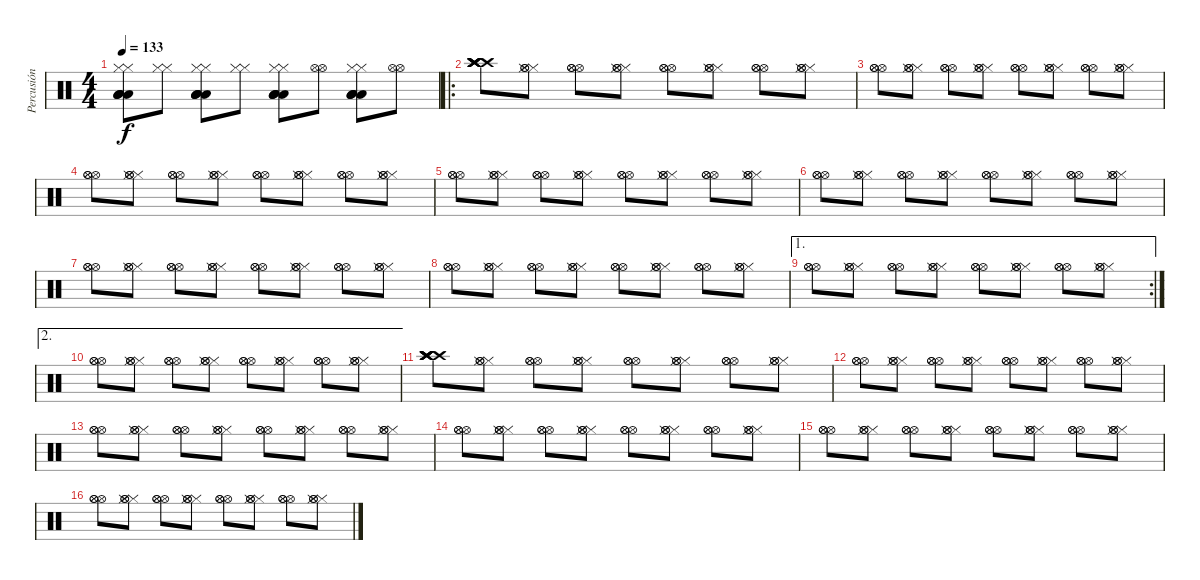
\track ("Percusión" "Percusión") {instrument percussion}
\staff {score}
\articulation defaults
\ts (4 4)
\tempo 133
\clef neutral
\ks c
("Hi-Hat (closed)" "Hi-Hat (closed)" "Low Tom (hit)" "Low Tom (hit)" "Low Tom (hit)" "Low Tom (hit)").8{dy f} ("Hi-Hat (closed)" "Hi-Hat (closed)").8 ("Hi-Hat (closed)" "Hi-Hat (closed)" "Low Tom (hit)" "Low Tom (hit)" "Low Tom (hit)" "Low Tom (hit)").8 ("Hi-Hat (closed)" "Hi-Hat (closed)").8 ("Hi-Hat (closed)" "Hi-Hat (closed)" "Low Tom (hit)" "Low Tom (hit)" "Low Tom (hit)" "Low Tom (hit)").8 ("Hi-Hat (open)" "Hi-Hat (open)").8 ("Hi-Hat (closed)" "Hi-Hat (closed)" "Low Tom (hit)" "Low Tom (hit)" "Low Tom (hit)" "Low Tom (hit)").8 ("Hi-Hat (open)" "Hi-Hat (open)").8 |
\ro
("Crash high (hit)" "Crash high (hit)" "Crash high (hit)" "Crash high (hit)" "Crash high (hit)" "Crash high (hit)").8 ("Hi-Hat (closed)" "Hi-Hat (open)" "Hi-Hat (closed)" "Hi-Hat (open)").8 ("Hi-Hat (open)" "Hi-Hat (open)" "Hi-Hat (open)").8 ("Hi-Hat (closed)" "Hi-Hat (open)" "Hi-Hat (closed)" "Hi-Hat (open)").8 ("Hi-Hat (open)" "Hi-Hat (open)" "Hi-Hat (open)").8 ("Hi-Hat (closed)" "Hi-Hat (open)" "Hi-Hat (closed)" "Hi-Hat (open)").8 ("Hi-Hat (open)" "Hi-Hat (open)" "Hi-Hat (open)").8 ("Hi-Hat (closed)" "Hi-Hat (open)" "Hi-Hat (closed)" "Hi-Hat (open)").8 |
("Hi-Hat (open)" "Hi-Hat (open)" "Hi-Hat (open)").8 ("Hi-Hat (closed)" "Hi-Hat (open)" "Hi-Hat (closed)" "Hi-Hat (open)").8 ("Hi-Hat (open)" "Hi-Hat (open)" "Hi-Hat (open)").8 ("Hi-Hat (closed)" "Hi-Hat (open)" "Hi-Hat (closed)" "Hi-Hat (open)").8 ("Hi-Hat (open)" "Hi-Hat (open)" "Hi-Hat (open)").8 ("Hi-Hat (closed)" "Hi-Hat (open)" "Hi-Hat (closed)" "Hi-Hat (open)").8 ("Hi-Hat (open)" "Hi-Hat (open)" "Hi-Hat (open)").8 ("Hi-Hat (closed)" "Hi-Hat (open)" "Hi-Hat (closed)" "Hi-Hat (open)").8 |
("Hi-Hat (open)" "Hi-Hat (open)" "Hi-Hat (open)").8 ("Hi-Hat (closed)" "Hi-Hat (open)" "Hi-Hat (closed)" "Hi-Hat (open)").8 ("Hi-Hat (open)" "Hi-Hat (open)" "Hi-Hat (open)").8 ("Hi-Hat (closed)" "Hi-Hat (open)" "Hi-Hat (closed)" "Hi-Hat (open)").8 ("Hi-Hat (open)" "Hi-Hat (open)" "Hi-Hat (open)").8 ("Hi-Hat (closed)" "Hi-Hat (open)" "Hi-Hat (closed)" "Hi-Hat (open)").8 ("Hi-Hat (open)" "Hi-Hat (open)" "Hi-Hat (open)").8 ("Hi-Hat (closed)" "Hi-Hat (open)" "Hi-Hat (closed)" "Hi-Hat (open)").8 |
("Hi-Hat (open)" "Hi-Hat (open)" "Hi-Hat (open)").8 ("Hi-Hat (closed)" "Hi-Hat (open)" "Hi-Hat (closed)" "Hi-Hat (open)").8 ("Hi-Hat (open)" "Hi-Hat (open)" "Hi-Hat (open)").8 ("Hi-Hat (closed)" "Hi-Hat (open)" "Hi-Hat (closed)" "Hi-Hat (open)").8 ("Hi-Hat (open)" "Hi-Hat (open)" "Hi-Hat (open)").8 ("Hi-Hat (closed)" "Hi-Hat (open)" "Hi-Hat (closed)" "Hi-Hat (open)").8 ("Hi-Hat (open)" "Hi-Hat (open)" "Hi-Hat (open)").8 ("Hi-Hat (closed)" "Hi-Hat (open)" "Hi-Hat (closed)" "Hi-Hat (open)").8 |
("Hi-Hat (open)" "Hi-Hat (open)" "Hi-Hat (open)").8 ("Hi-Hat (closed)" "Hi-Hat (open)" "Hi-Hat (closed)" "Hi-Hat (open)").8 ("Hi-Hat (open)" "Hi-Hat (open)" "Hi-Hat (open)").8 ("Hi-Hat (closed)" "Hi-Hat (open)" "Hi-Hat (closed)" "Hi-Hat (open)").8 ("Hi-Hat (open)" "Hi-Hat (open)" "Hi-Hat (open)").8 ("Hi-Hat (closed)" "Hi-Hat (open)" "Hi-Hat (closed)" "Hi-Hat (open)").8 ("Hi-Hat (open)" "Hi-Hat (open)" "Hi-Hat (open)").8 ("Hi-Hat (closed)" "Hi-Hat (open)" "Hi-Hat (closed)" "Hi-Hat (open)").8 |
("Hi-Hat (open)" "Hi-Hat (open)" "Hi-Hat (open)").8 ("Hi-Hat (closed)" "Hi-Hat (open)" "Hi-Hat (closed)" "Hi-Hat (open)").8 ("Hi-Hat (open)" "Hi-Hat (open)" "Hi-Hat (open)").8 ("Hi-Hat (closed)" "Hi-Hat (open)" "Hi-Hat (closed)" "Hi-Hat (open)").8 ("Hi-Hat (open)" "Hi-Hat (open)" "Hi-Hat (open)").8 ("Hi-Hat (closed)" "Hi-Hat (open)" "Hi-Hat (closed)" "Hi-Hat (open)").8 ("Hi-Hat (open)" "Hi-Hat (open)" "Hi-Hat (open)").8 ("Hi-Hat (closed)" "Hi-Hat (open)" "Hi-Hat (closed)" "Hi-Hat (open)").8 |
("Hi-Hat (open)" "Hi-Hat (open)" "Hi-Hat (open)").8 ("Hi-Hat (closed)" "Hi-Hat (open)" "Hi-Hat (closed)" "Hi-Hat (open)").8 ("Hi-Hat (open)" "Hi-Hat (open)" "Hi-Hat (open)").8 ("Hi-Hat (closed)" "Hi-Hat (open)" "Hi-Hat (closed)" "Hi-Hat (open)").8 ("Hi-Hat (open)" "Hi-Hat (open)" "Hi-Hat (open)").8 ("Hi-Hat (closed)" "Hi-Hat (open)" "Hi-Hat (closed)" "Hi-Hat (open)").8 ("Hi-Hat (open)" "Hi-Hat (open)" "Hi-Hat (open)").8 ("Hi-Hat (closed)" "Hi-Hat (open)" "Hi-Hat (closed)" "Hi-Hat (open)").8 |
\ae 1
\rc 2
("Hi-Hat (open)" "Hi-Hat (open)" "Hi-Hat (open)").8 ("Hi-Hat (closed)" "Hi-Hat (open)" "Hi-Hat (closed)" "Hi-Hat (open)").8 ("Hi-Hat (open)" "Hi-Hat (open)" "Hi-Hat (open)").8 ("Hi-Hat (closed)" "Hi-Hat (open)" "Hi-Hat (closed)" "Hi-Hat (open)").8 ("Hi-Hat (open)" "Hi-Hat (open)" "Hi-Hat (open)").8 ("Hi-Hat (closed)" "Hi-Hat (open)" "Hi-Hat (closed)" "Hi-Hat (open)").8 ("Hi-Hat (open)" "Hi-Hat (open)" "Hi-Hat (open)").8 ("Hi-Hat (closed)" "Hi-Hat (open)" "Hi-Hat (closed)" "Hi-Hat (open)").8 |
\ae 2
("Hi-Hat (open)" "Hi-Hat (open)" "Hi-Hat (open)").8 ("Hi-Hat (closed)" "Hi-Hat (open)" "Hi-Hat (closed)" "Hi-Hat (open)").8 ("Hi-Hat (open)" "Hi-Hat (open)" "Hi-Hat (open)").8 ("Hi-Hat (closed)" "Hi-Hat (open)" "Hi-Hat (closed)" "Hi-Hat (open)").8 ("Hi-Hat (open)" "Hi-Hat (open)" "Hi-Hat (open)").8 ("Hi-Hat (closed)" "Hi-Hat (open)" "Hi-Hat (closed)" "Hi-Hat (open)").8 ("Hi-Hat (open)" "Hi-Hat (open)" "Hi-Hat (open)").8 ("Hi-Hat (closed)" "Hi-Hat (open)" "Hi-Hat (closed)" "Hi-Hat (open)").8 |
("Crash high (hit)" "Crash high (hit)" "Crash high (hit)" "Crash high (hit)" "Crash high (hit)" "Crash high (hit)").8 ("Hi-Hat (closed)" "Hi-Hat (open)" "Hi-Hat (closed)" "Hi-Hat (open)").8 ("Hi-Hat (open)" "Hi-Hat (open)" "Hi-Hat (open)").8 ("Hi-Hat (closed)" "Hi-Hat (open)" "Hi-Hat (closed)" "Hi-Hat (open)").8 ("Hi-Hat (open)" "Hi-Hat (open)" "Hi-Hat (open)").8 ("Hi-Hat (closed)" "Hi-Hat (open)" "Hi-Hat (closed)" "Hi-Hat (open)").8 ("Hi-Hat (open)" "Hi-Hat (open)" "Hi-Hat (open)").8 ("Hi-Hat (closed)" "Hi-Hat (open)" "Hi-Hat (closed)" "Hi-Hat (open)").8 |
("Hi-Hat (open)" "Hi-Hat (open)" "Hi-Hat (open)").8 ("Hi-Hat (closed)" "Hi-Hat (open)" "Hi-Hat (closed)" "Hi-Hat (open)").8 ("Hi-Hat (open)" "Hi-Hat (open)" "Hi-Hat (open)").8 ("Hi-Hat (closed)" "Hi-Hat (open)" "Hi-Hat (closed)" "Hi-Hat (open)").8 ("Hi-Hat (open)" "Hi-Hat (open)" "Hi-Hat (open)").8 ("Hi-Hat (closed)" "Hi-Hat (open)" "Hi-Hat (closed)" "Hi-Hat (open)").8 ("Hi-Hat (open)" "Hi-Hat (open)" "Hi-Hat (open)").8 ("Hi-Hat (closed)" "Hi-Hat (open)" "Hi-Hat (closed)" "Hi-Hat (open)").8 |
("Hi-Hat (open)" "Hi-Hat (open)" "Hi-Hat (open)").8 ("Hi-Hat (closed)" "Hi-Hat (open)" "Hi-Hat (closed)" "Hi-Hat (open)").8 ("Hi-Hat (open)" "Hi-Hat (open)" "Hi-Hat (open)").8 ("Hi-Hat (closed)" "Hi-Hat (open)" "Hi-Hat (closed)" "Hi-Hat (open)").8 ("Hi-Hat (open)" "Hi-Hat (open)" "Hi-Hat (open)").8 ("Hi-Hat (closed)" "Hi-Hat (open)" "Hi-Hat (closed)" "Hi-Hat (open)").8 ("Hi-Hat (open)" "Hi-Hat (open)" "Hi-Hat (open)").8 ("Hi-Hat (closed)" "Hi-Hat (open)" "Hi-Hat (closed)" "Hi-Hat (open)").8 |
("Hi-Hat (open)" "Hi-Hat (open)" "Hi-Hat (open)").8 ("Hi-Hat (closed)" "Hi-Hat (open)" "Hi-Hat (closed)" "Hi-Hat (open)").8 ("Hi-Hat (open)" "Hi-Hat (open)" "Hi-Hat (open)").8 ("Hi-Hat (closed)" "Hi-Hat (open)" "Hi-Hat (closed)" "Hi-Hat (open)").8 ("Hi-Hat (open)" "Hi-Hat (open)" "Hi-Hat (open)").8 ("Hi-Hat (closed)" "Hi-Hat (open)" "Hi-Hat (closed)" "Hi-Hat (open)").8 ("Hi-Hat (open)" "Hi-Hat (open)" "Hi-Hat (open)").8 ("Hi-Hat (closed)" "Hi-Hat (open)" "Hi-Hat (closed)" "Hi-Hat (open)").8 |
("Hi-Hat (open)" "Hi-Hat (open)" "Hi-Hat (open)").8 ("Hi-Hat (closed)" "Hi-Hat (open)" "Hi-Hat (closed)" "Hi-Hat (open)").8 ("Hi-Hat (open)" "Hi-Hat (open)" "Hi-Hat (open)").8 ("Hi-Hat (closed)" "Hi-Hat (open)" "Hi-Hat (closed)" "Hi-Hat (open)").8 ("Hi-Hat (open)" "Hi-Hat (open)" "Hi-Hat (open)").8 ("Hi-Hat (closed)" "Hi-Hat (open)" "Hi-Hat (closed)" "Hi-Hat (open)").8 ("Hi-Hat (open)" "Hi-Hat (open)" "Hi-Hat (open)").8 ("Hi-Hat (closed)" "Hi-Hat (open)" "Hi-Hat (closed)" "Hi-Hat (open)").8 |
("Hi-Hat (open)" "Hi-Hat (open)" "Hi-Hat (open)").8 ("Hi-Hat (closed)" "Hi-Hat (open)" "Hi-Hat (closed)" "Hi-Hat (open)").8 ("Hi-Hat (open)" "Hi-Hat (open)" "Hi-Hat (open)").8 ("Hi-Hat (closed)" "Hi-Hat (open)" "Hi-Hat (closed)" "Hi-Hat (open)").8 ("Hi-Hat (open)" "Hi-Hat (open)" "Hi-Hat (open)").8 ("Hi-Hat (closed)" "Hi-Hat (open)" "Hi-Hat (closed)" "Hi-Hat (open)").8 ("Hi-Hat (open)" "Hi-Hat (open)" "Hi-Hat (open)").8 ("Hi-Hat (closed)" "Hi-Hat (open)" "Hi-Hat (closed)" "Hi-Hat (open)").8
